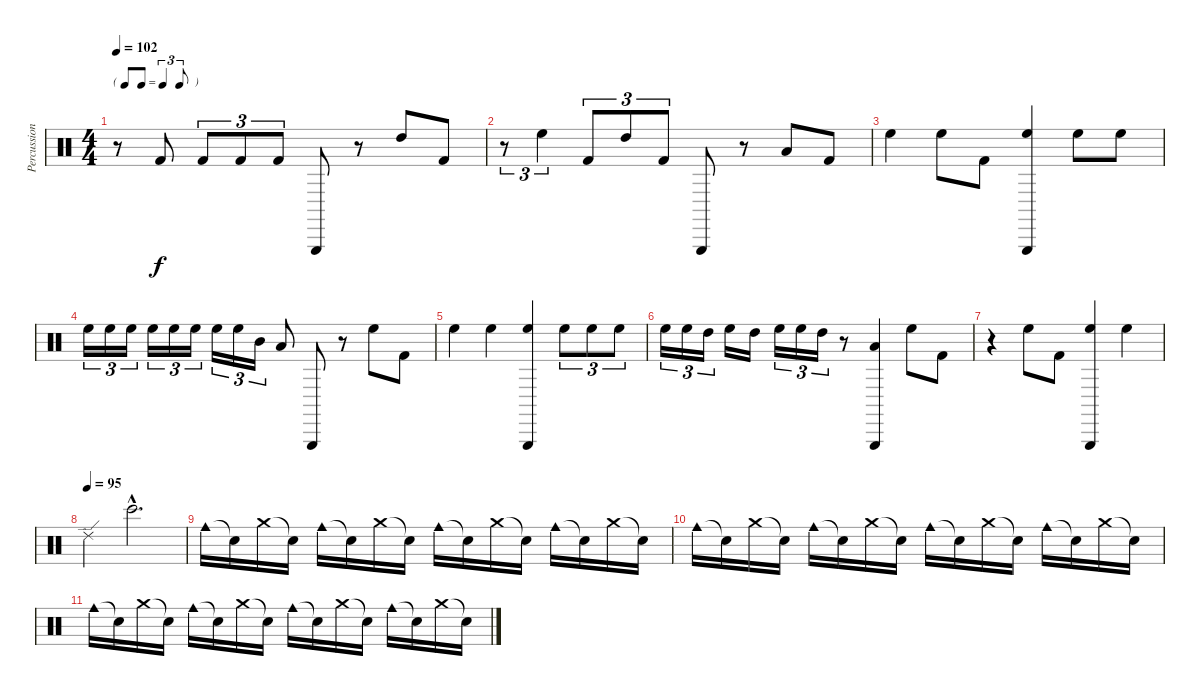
\track ("Percussion" "Percussion") {instrument percussion}
\staff {score}
\articulation defaults
\ts (4 4)
\tf triplet8th
\tempo 102
\clef neutral
\ks c
r.8{dy f} "Kick (hit) 2".8 "Kick (hit) 2".8{tu (3 2)} "Kick (hit) 2".8{tu (3 2)} "Kick (hit) 2".8{tu (3 2)} "Triangle (hit)".8 r.8 "High Tom (hit)".8 "Kick (hit) 2".8 |
r.8{tu (3 2)} "High Floor Tom (hit)".4{tu (3 2)} "Kick (hit) 2".8{tu (3 2)} "High Tom (hit)".8{tu (3 2)} "Kick (hit) 2".8{tu (3 2)} "Triangle (hit)".8 r.8 "Low Tom (hit)".8 "Kick (hit) 2".8 |
"High Floor Tom (hit)".4 "High Floor Tom (hit)".8 "Kick (hit) 2".8 ("High Floor Tom (hit)" "Triangle (hit)").4 "High Floor Tom (hit)".8 "High Floor Tom (hit)".8 |
"High Floor Tom (hit)".16{tu (3 2)} "High Floor Tom (hit)".16{tu (3 2)} "High Floor Tom (hit)".16{tu (3 2)} "High Floor Tom (hit)".16{tu (3 2)} "High Floor Tom (hit)".16{tu (3 2)} "High Floor Tom (hit)".16{tu (3 2)} "High Floor Tom (hit)".16{tu (3 2)} "High Floor Tom (hit)".16{tu (3 2)} "Mid Tom (hit)".16{tu (3 2)} "Low Tom (hit)".8 "Triangle (hit)".8 r.8 "High Floor Tom (hit)".8 "Kick (hit) 2".8 |
"High Floor Tom (hit)".4 "High Floor Tom (hit)".4 ("High Floor Tom (hit)" "Triangle (hit)").4 "High Floor Tom (hit)".8{tu (3 2)} "High Floor Tom (hit)".8{tu (3 2)} "High Floor Tom (hit)".8{tu (3 2)} |
"High Floor Tom (hit)".16{tu (3 2)} "High Floor Tom (hit)".16{tu (3 2)} "High Tom (hit)".16{tu (3 2)} "High Floor Tom (hit)".16 "High Tom (hit)".16 "High Floor Tom (hit)".16{tu (3 2)} "High Floor Tom (hit)".16{tu (3 2)} "High Tom (hit)".16{tu (3 2)} r.8 ("Low Tom (hit)" "Triangle (hit)").4 "High Floor Tom (hit)".8 "Kick (hit) 2".8 |
r.4 "High Floor Tom (hit)".8 "Kick (hit) 2".8 ("High Floor Tom (hit)" "Triangle (hit)").4 "High Floor Tom (hit)".4 |
\tempo (95)
"Ride (edge) 2".4 "Bongo High (hit)"{hac}.2{d} |
"Cowbell medium (hit)".16{balance 14} "Snare (hit)"{t}.16 "Crash medium (hit)".16 "Snare (hit)"{t}.16 "Cowbell medium (hit)".16 "Snare (hit)"{t}.16 "Crash medium (hit)".16 "Snare (hit)"{t}.16 "Cowbell medium (hit)".16{balance 0} "Snare (hit)"{t}.16 "Crash medium (hit)".16 "Snare (hit)"{t}.16 "Cowbell medium (hit)".16 "Snare (hit)"{t}.16 "Crash medium (hit)".16 "Snare (hit)"{t}.16 |
"Cowbell medium (hit)".16{volume 3} "Snare (hit)"{t}.16 "Crash medium (hit)".16 "Snare (hit)"{t}.16 "Cowbell medium (hit)".16 "Snare (hit)"{t}.16 "Crash medium (hit)".16 "Snare (hit)"{t}.16 "Cowbell medium (hit)".16 "Snare (hit)"{t}.16 "Crash medium (hit)".16 "Snare (hit)"{t}.16 "Cowbell medium (hit)".16 "Snare (hit)"{t}.16 "Crash medium (hit)".16 "Snare (hit)"{t}.16 |
"Cowbell medium (hit)".16 "Snare (hit)"{t}.16 "Crash medium (hit)".16 "Snare (hit)"{t}.16 "Cowbell medium (hit)".16 "Snare (hit)"{t}.16 "Crash medium (hit)".16 "Snare (hit)"{t}.16 "Cowbell medium (hit)".16 "Snare (hit)"{t}.16 "Crash medium (hit)".16 "Snare (hit)"{t}.16 "Cowbell medium (hit)".16 "Snare (hit)"{t}.16 "Crash medium (hit)".16 "Snare (hit)"{t}.16
